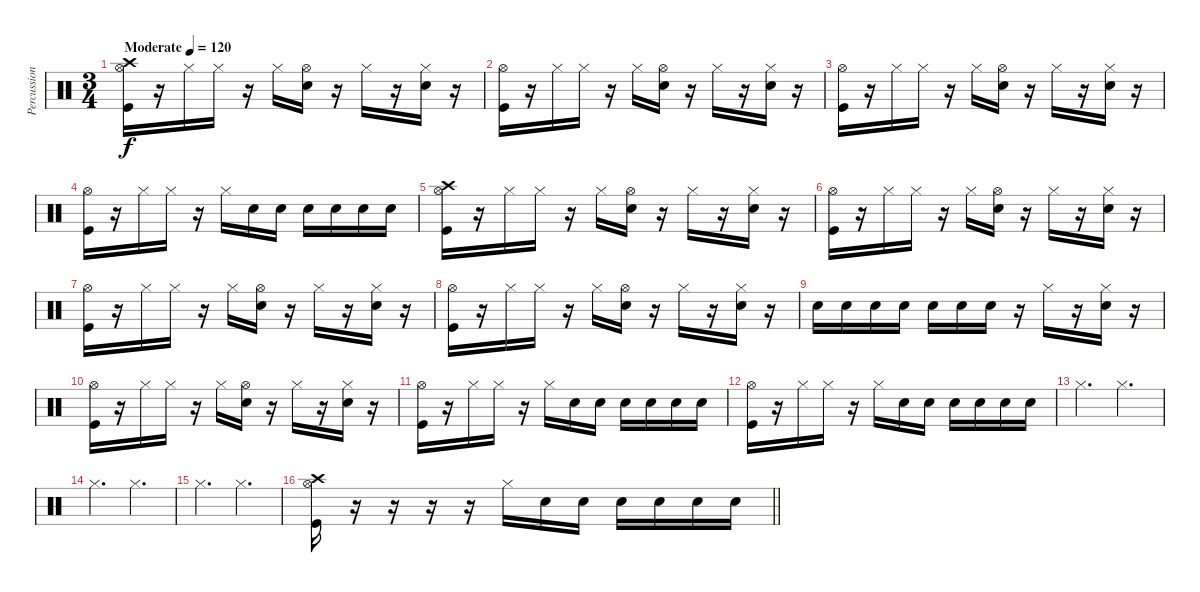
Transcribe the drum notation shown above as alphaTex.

\track ("Percussion" "Percussion") {instrument percussion}
\staff {score}
\articulation defaults
\ts (3 4)
\tempo (120 "Moderate")
\clef neutral
\ks c
("Crash high (hit)" "Kick (hit)" "Hi-Hat (open)").16{dy f} r.16 "Hi-Hat (closed)".16 "Hi-Hat (closed)".16 r.16 "Hi-Hat (closed)".16 ("Snare (hit) 2" "Hi-Hat (open)").16 r.16 "Hi-Hat (closed)".16 r.16 ("Snare (hit) 2" "Hi-Hat (closed)").16 r.16 |
("Kick (hit)" "Hi-Hat (open)").16 r.16 "Hi-Hat (closed)".16 "Hi-Hat (closed)".16 r.16 "Hi-Hat (closed)".16 ("Snare (hit) 2" "Hi-Hat (open)").16 r.16 "Hi-Hat (closed)".16 r.16 ("Snare (hit) 2" "Hi-Hat (closed)").16 r.16 |
("Kick (hit)" "Hi-Hat (open)").16 r.16 "Hi-Hat (closed)".16 "Hi-Hat (closed)".16 r.16 "Hi-Hat (closed)".16 ("Snare (hit) 2" "Hi-Hat (open)").16 r.16 "Hi-Hat (closed)".16 r.16 ("Snare (hit) 2" "Hi-Hat (closed)").16 r.16 |
("Kick (hit)" "Hi-Hat (open)").16 r.16 "Hi-Hat (closed)".16 "Hi-Hat (closed)".16 r.16 "Hi-Hat (closed)".16 "Snare (hit) 2".16 "Snare (hit) 2".16 "Snare (hit) 2".16 "Snare (hit) 2".16 "Snare (hit) 2".16 "Snare (hit) 2".16 |
("Crash high (hit)" "Kick (hit)" "Hi-Hat (open)").16 r.16 "Hi-Hat (closed)".16 "Hi-Hat (closed)".16 r.16 "Hi-Hat (closed)".16 ("Snare (hit) 2" "Hi-Hat (open)").16 r.16 "Hi-Hat (closed)".16 r.16 ("Snare (hit) 2" "Hi-Hat (closed)").16 r.16 |
("Kick (hit)" "Hi-Hat (open)").16 r.16 "Hi-Hat (closed)".16 "Hi-Hat (closed)".16 r.16 "Hi-Hat (closed)".16 ("Snare (hit) 2" "Hi-Hat (open)").16 r.16 "Hi-Hat (closed)".16 r.16 ("Snare (hit) 2" "Hi-Hat (closed)").16 r.16 |
("Kick (hit)" "Hi-Hat (open)").16 r.16 "Hi-Hat (closed)".16 "Hi-Hat (closed)".16 r.16 "Hi-Hat (closed)".16 ("Snare (hit) 2" "Hi-Hat (open)").16 r.16 "Hi-Hat (closed)".16 r.16 ("Snare (hit) 2" "Hi-Hat (closed)").16 r.16 |
("Kick (hit)" "Hi-Hat (open)").16 r.16 "Hi-Hat (closed)".16 "Hi-Hat (closed)".16 r.16 "Hi-Hat (closed)".16 ("Snare (hit) 2" "Hi-Hat (open)").16 r.16 "Hi-Hat (closed)".16 r.16 ("Snare (hit) 2" "Hi-Hat (closed)").16 r.16 |
"Snare (hit) 2".16 "Snare (hit) 2".16 "Snare (hit) 2".16 "Snare (hit) 2".16 "Snare (hit) 2".16 "Snare (hit) 2".16 "Snare (hit) 2".16 r.16 "Hi-Hat (closed)".16 r.16 ("Snare (hit) 2" "Hi-Hat (closed)").16 r.16 |
("Kick (hit)" "Hi-Hat (open)").16 r.16 "Hi-Hat (closed)".16 "Hi-Hat (closed)".16 r.16 "Hi-Hat (closed)".16 ("Snare (hit) 2" "Hi-Hat (open)").16 r.16 "Hi-Hat (closed)".16 r.16 ("Snare (hit) 2" "Hi-Hat (closed)").16 r.16 |
("Kick (hit)" "Hi-Hat (open)").16 r.16 "Hi-Hat (closed)".16 "Hi-Hat (closed)".16 r.16 "Hi-Hat (closed)".16 "Snare (hit) 2".16 "Snare (hit) 2".16 "Snare (hit) 2".16 "Snare (hit) 2".16 "Snare (hit) 2".16 "Snare (hit) 2".16 |
("Kick (hit)" "Hi-Hat (open)").16 r.16 "Hi-Hat (closed)".16 "Hi-Hat (closed)".16 r.16 "Hi-Hat (closed)".16 "Snare (hit) 2".16 "Snare (hit) 2".16 "Snare (hit) 2".16 "Snare (hit) 2".16 "Snare (hit) 2".16 "Snare (hit) 2".16 |
"Hi-Hat (closed)".4{d} "Hi-Hat (closed)".4{d} |
"Hi-Hat (closed)".4{d} "Hi-Hat (closed)".4{d} |
"Hi-Hat (closed)".4{d} "Hi-Hat (closed)".4{d} |
\barLineRight lightlight
("Crash high (hit)" "Kick (hit)" "Hi-Hat (open)").16 r.16 r.16 r.16 r.16 "Hi-Hat (closed)".16 "Snare (hit) 2".16 "Snare (hit) 2".16 "Snare (hit) 2".16 "Snare (hit) 2".16 "Snare (hit) 2".16 "Snare (hit) 2".16
